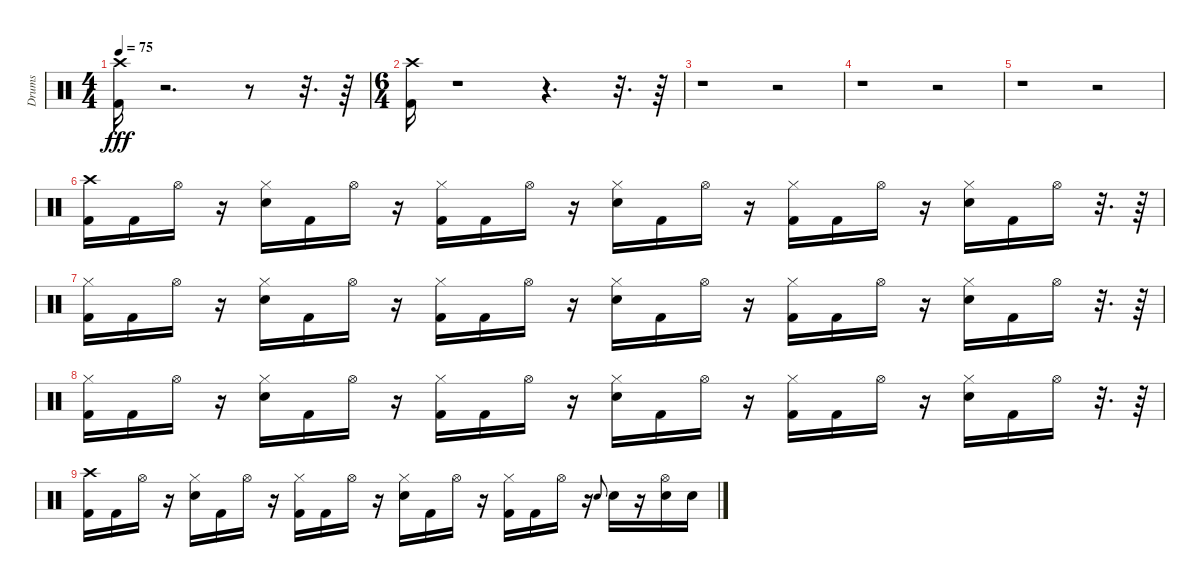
\track ("Drums" "Drums") {instrument percussion}
\staff {score}
\articulation defaults
\ts (4 4)
\tempo 75
\clef neutral
\ks c
("Crash high (hit)" "Kick (hit) 2").16{dy fff} r.2{d} r.8 r.32{d} r.64 |
\ts (6 4)
("Crash high (hit)" "Kick (hit) 2").16 r.1 r.4{d} r.32{d} r.64 |
r.1 r.2 |
r.1 r.2 |
r.1 r.2 |
("Kick (hit) 2" "Crash high (hit)").16 "Kick (hit) 2".16 "Hi-Hat (open)".16 r.16 ("Electric Snare (hit)" "Hi-Hat (closed)").16 "Kick (hit) 2".16 "Hi-Hat (open)".16 r.16 ("Kick (hit) 2" "Hi-Hat (closed)").16 "Kick (hit) 2".16 "Hi-Hat (open)".16 r.16 ("Electric Snare (hit)" "Hi-Hat (closed)").16 "Kick (hit) 2".16 "Hi-Hat (open)".16 r.16 ("Kick (hit) 2" "Hi-Hat (closed)").16 "Kick (hit) 2".16 "Hi-Hat (open)".16 r.16 ("Electric Snare (hit)" "Hi-Hat (closed)").16 "Kick (hit) 2".16 "Hi-Hat (open)".16 r.32{d} r.64 |
("Hi-Hat (closed)" "Kick (hit) 2").16 "Kick (hit) 2".16 "Hi-Hat (open)".16 r.16 ("Hi-Hat (closed)" "Electric Snare (hit)").16 "Kick (hit) 2".16 "Hi-Hat (open)".16 r.16 ("Hi-Hat (closed)" "Kick (hit) 2").16 "Kick (hit) 2".16 "Hi-Hat (open)".16 r.16 ("Hi-Hat (closed)" "Electric Snare (hit)").16 "Kick (hit) 2".16 "Hi-Hat (open)".16 r.16 ("Hi-Hat (closed)" "Kick (hit) 2").16 "Kick (hit) 2".16 "Hi-Hat (open)".16 r.16 ("Hi-Hat (closed)" "Electric Snare (hit)").16 "Kick (hit) 2".16 "Hi-Hat (open)".16 r.32{d} r.64 |
("Hi-Hat (closed)" "Kick (hit) 2").16 "Kick (hit) 2".16 "Hi-Hat (open)".16 r.16 ("Hi-Hat (closed)" "Electric Snare (hit)").16 "Kick (hit) 2".16 "Hi-Hat (open)".16 r.16 ("Hi-Hat (closed)" "Kick (hit) 2").16 "Kick (hit) 2".16 "Hi-Hat (open)".16 r.16 ("Hi-Hat (closed)" "Electric Snare (hit)").16 "Kick (hit) 2".16 "Hi-Hat (open)".16 r.16 ("Hi-Hat (closed)" "Kick (hit) 2").16 "Kick (hit) 2".16 "Hi-Hat (open)".16 r.16 ("Hi-Hat (closed)" "Electric Snare (hit)").16 "Kick (hit) 2".16 "Hi-Hat (open)".16 r.32{d} r.64 |
("Crash high (hit)" "Kick (hit) 2").16 "Kick (hit) 2".16 "Hi-Hat (open)".16 r.16 ("Electric Snare (hit)" "Hi-Hat (closed)").16 "Kick (hit) 2".16 "Hi-Hat (open)".16 r.16 ("Kick (hit) 2" "Hi-Hat (closed)").16 "Kick (hit) 2".16 "Hi-Hat (open)".16 r.16 ("Electric Snare (hit)" "Hi-Hat (closed)").16 "Kick (hit) 2".16 "Hi-Hat (open)".16 r.16 ("Kick (hit) 2" "Hi-Hat (closed)").16 "Kick (hit) 2".16 "Hi-Hat (open)".16 r.16 "Electric Snare (hit)".8{gr onbeat} "Electric Snare (hit)".16 r.16 ("Electric Snare (hit)" "Hi-Hat (open)").16 "Electric Snare (hit)".16
